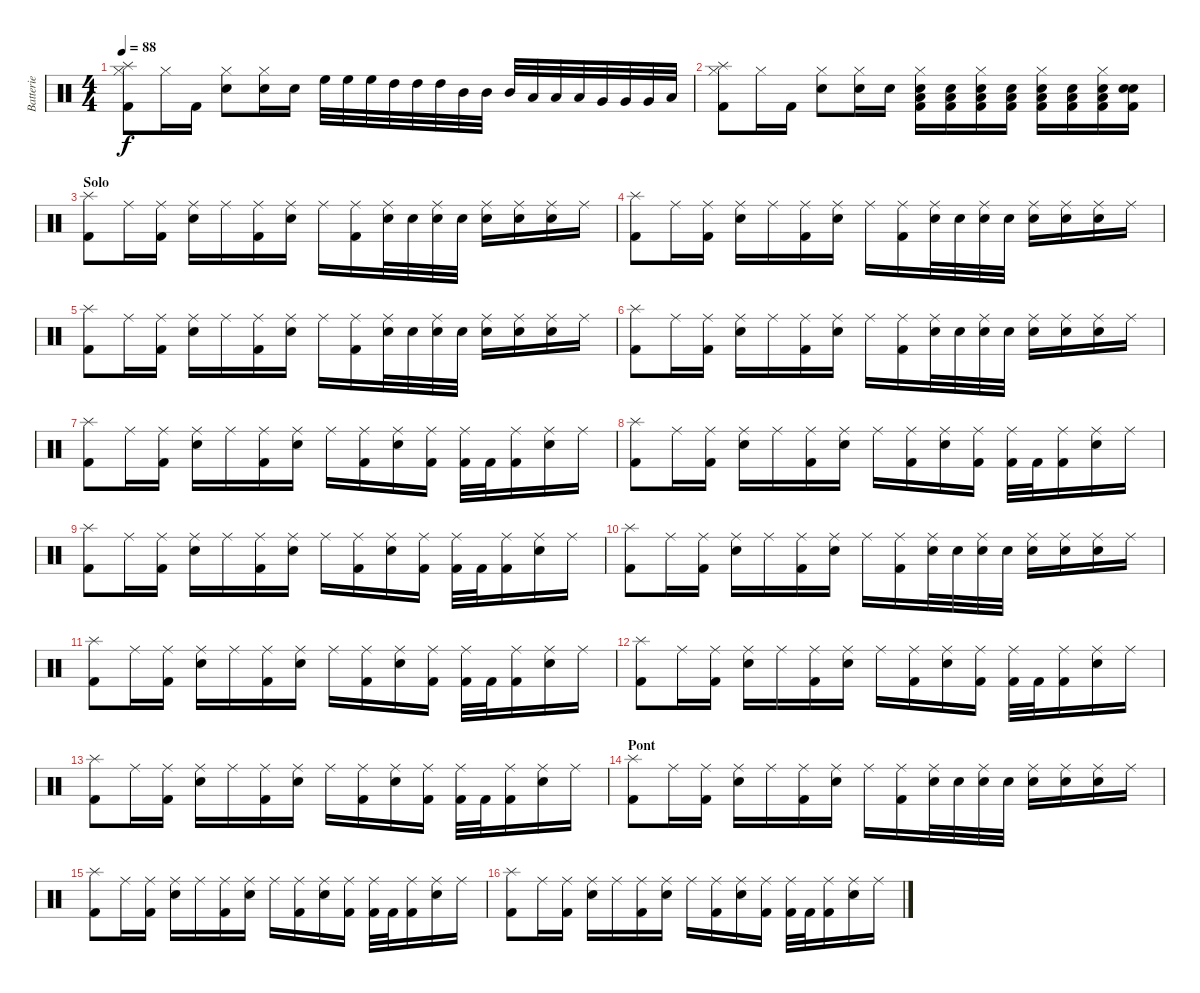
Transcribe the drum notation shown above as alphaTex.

\track ("Batterie" "Batterie") {instrument percussion}
\staff {score}
\articulation defaults
\ts (4 4)
\tempo 88
\clef neutral
\ks c
("Splash (hit)" "Hi-Hat (closed)" "Kick (hit) 2").8{dy f} "Hi-Hat (closed)".16 "Kick (hit) 2".16 ("Hi-Hat (closed)" "Snare (hit) 2").8 ("Hi-Hat (closed)" "Snare (hit) 2").16 "Snare (hit) 2".16 "High Floor Tom (hit)".32 "High Floor Tom (hit)".32 "High Floor Tom (hit)".32 "High Tom (hit)".32 "High Tom (hit)".32 "High Tom (hit)".32 "Mid Tom (hit)".32 "Mid Tom (hit)".32 "Mid Tom (hit)".32 "Low Tom (hit)".32 "Low Tom (hit)".32 "Low Tom (hit)".32 "Very Low Tom (hit)".32 "Very Low Tom (hit)".32 "Very Low Tom (hit)".32 "Low Floor Tom (hit)".32 |
("Splash (hit)" "Hi-Hat (closed)" "Kick (hit) 2").8 "Hi-Hat (closed)".16 "Kick (hit) 2".16 ("Hi-Hat (closed)" "Snare (hit) 2").8 ("Hi-Hat (closed)" "Snare (hit) 2").16 "Snare (hit) 2".16 ("Hi-Hat (closed)" "Low Floor Tom (hit)" "Snare (hit) 2" "Kick (hit) 2").16 ("Low Floor Tom (hit)" "Snare (hit) 2" "Kick (hit) 2").16 ("Hi-Hat (closed)" "Low Floor Tom (hit)" "Snare (hit) 2" "Kick (hit) 2").16 ("Low Floor Tom (hit)" "Snare (hit) 2" "Kick (hit) 2").16 ("Hi-Hat (closed)" "Low Floor Tom (hit)" "Snare (hit) 2" "Kick (hit) 2").16 ("Low Floor Tom (hit)" "Snare (hit) 2" "Kick (hit) 2").16 ("Hi-Hat (closed)" "Low Floor Tom (hit)" "Snare (hit) 2" "Kick (hit) 2").16 ("Snare (hit)" "Snare (hit) 2" "Kick (hit) 2").16 |
\section ("" "Solo")
("Splash (hit)" "Kick (hit) 2").8 "Ride (middle)".16 ("Ride (middle)" "Kick (hit) 2").16 ("Ride (middle)" "Snare (hit) 2").16 "Ride (middle)".16 ("Ride (middle)" "Kick (hit) 2").16 ("Ride (middle)" "Snare (hit) 2").16 "Ride (middle)".16 ("Ride (middle)" "Kick (hit) 2").16 ("Ride (middle)" "Snare (hit) 2").32 "Snare (hit) 2".32 ("Ride (middle)" "Snare (hit) 2").32 "Snare (hit) 2".32 ("Ride (middle)" "Snare (hit) 2").16 ("Ride (middle)" "Snare (hit) 2").16 ("Ride (middle)" "Snare (hit) 2").16 "Ride (middle)".16 |
("Splash (hit)" "Kick (hit) 2").8 "Ride (middle)".16 ("Ride (middle)" "Kick (hit) 2").16 ("Ride (middle)" "Snare (hit) 2").16 "Ride (middle)".16 ("Ride (middle)" "Kick (hit) 2").16 ("Ride (middle)" "Snare (hit) 2").16 "Ride (middle)".16 ("Ride (middle)" "Kick (hit) 2").16 ("Ride (middle)" "Snare (hit) 2").32 "Snare (hit) 2".32 ("Ride (middle)" "Snare (hit) 2").32 "Snare (hit) 2".32 ("Ride (middle)" "Snare (hit) 2").16 ("Ride (middle)" "Snare (hit) 2").16 ("Ride (middle)" "Snare (hit) 2").16 "Ride (middle)".16 |
("Splash (hit)" "Kick (hit) 2").8 "Ride (middle)".16 ("Ride (middle)" "Kick (hit) 2").16 ("Ride (middle)" "Snare (hit) 2").16 "Ride (middle)".16 ("Ride (middle)" "Kick (hit) 2").16 ("Ride (middle)" "Snare (hit) 2").16 "Ride (middle)".16 ("Ride (middle)" "Kick (hit) 2").16 ("Ride (middle)" "Snare (hit) 2").32 "Snare (hit) 2".32 ("Ride (middle)" "Snare (hit) 2").32 "Snare (hit) 2".32 ("Ride (middle)" "Snare (hit) 2").16 ("Ride (middle)" "Snare (hit) 2").16 ("Ride (middle)" "Snare (hit) 2").16 "Ride (middle)".16 |
("Splash (hit)" "Kick (hit) 2").8 "Ride (middle)".16 ("Ride (middle)" "Kick (hit) 2").16 ("Ride (middle)" "Snare (hit) 2").16 "Ride (middle)".16 ("Ride (middle)" "Kick (hit) 2").16 ("Ride (middle)" "Snare (hit) 2").16 "Ride (middle)".16 ("Ride (middle)" "Kick (hit) 2").16 ("Ride (middle)" "Snare (hit) 2").32 "Snare (hit) 2".32 ("Ride (middle)" "Snare (hit) 2").32 "Snare (hit) 2".32 ("Ride (middle)" "Snare (hit) 2").16 ("Ride (middle)" "Snare (hit) 2").16 ("Ride (middle)" "Snare (hit) 2").16 "Ride (middle)".16 |
("Splash (hit)" "Kick (hit) 2").8 "Ride (middle)".16 ("Ride (middle)" "Kick (hit) 2").16 ("Ride (middle)" "Snare (hit) 2").16 "Ride (middle)".16 ("Ride (middle)" "Kick (hit) 2").16 ("Ride (middle)" "Snare (hit) 2").16 "Ride (middle)".16 ("Ride (middle)" "Kick (hit) 2").16 ("Ride (middle)" "Snare (hit) 2").16 ("Ride (middle)" "Kick (hit) 2").16 ("Ride (middle)" "Kick (hit) 2").32 "Kick (hit) 2".32 ("Ride (middle)" "Kick (hit) 2").16 ("Ride (middle)" "Snare (hit) 2").16 "Ride (middle)".16 |
("Splash (hit)" "Kick (hit) 2").8 "Ride (middle)".16 ("Ride (middle)" "Kick (hit) 2").16 ("Ride (middle)" "Snare (hit) 2").16 "Ride (middle)".16 ("Ride (middle)" "Kick (hit) 2").16 ("Ride (middle)" "Snare (hit) 2").16 "Ride (middle)".16 ("Ride (middle)" "Kick (hit) 2").16 ("Ride (middle)" "Snare (hit) 2").16 ("Ride (middle)" "Kick (hit) 2").16 ("Ride (middle)" "Kick (hit) 2").32 "Kick (hit) 2".32 ("Ride (middle)" "Kick (hit) 2").16 ("Ride (middle)" "Snare (hit) 2").16 "Ride (middle)".16 |
("Splash (hit)" "Kick (hit) 2").8 "Ride (middle)".16 ("Ride (middle)" "Kick (hit) 2").16 ("Ride (middle)" "Snare (hit) 2").16 "Ride (middle)".16 ("Ride (middle)" "Kick (hit) 2").16 ("Ride (middle)" "Snare (hit) 2").16 "Ride (middle)".16 ("Ride (middle)" "Kick (hit) 2").16 ("Ride (middle)" "Snare (hit) 2").16 ("Ride (middle)" "Kick (hit) 2").16 ("Ride (middle)" "Kick (hit) 2").32 "Kick (hit) 2".32 ("Ride (middle)" "Kick (hit) 2").16 ("Ride (middle)" "Snare (hit) 2").16 "Ride (middle)".16 |
("Splash (hit)" "Kick (hit) 2").8 "Ride (middle)".16 ("Ride (middle)" "Kick (hit) 2").16 ("Ride (middle)" "Snare (hit) 2").16 "Ride (middle)".16 ("Ride (middle)" "Kick (hit) 2").16 ("Ride (middle)" "Snare (hit) 2").16 "Ride (middle)".16 ("Ride (middle)" "Kick (hit) 2").16 ("Ride (middle)" "Snare (hit) 2").32 "Snare (hit) 2".32 ("Ride (middle)" "Snare (hit) 2").32 "Snare (hit) 2".32 ("Ride (middle)" "Snare (hit) 2").16 ("Ride (middle)" "Snare (hit) 2").16 ("Ride (middle)" "Snare (hit) 2").16 "Ride (middle)".16 |
("Splash (hit)" "Kick (hit) 2").8 "Ride (middle)".16 ("Ride (middle)" "Kick (hit) 2").16 ("Ride (middle)" "Snare (hit) 2").16 "Ride (middle)".16 ("Ride (middle)" "Kick (hit) 2").16 ("Ride (middle)" "Snare (hit) 2").16 "Ride (middle)".16 ("Ride (middle)" "Kick (hit) 2").16 ("Ride (middle)" "Snare (hit) 2").16 ("Ride (middle)" "Kick (hit) 2").16 ("Ride (middle)" "Kick (hit) 2").32 "Kick (hit) 2".32 ("Ride (middle)" "Kick (hit) 2").16 ("Ride (middle)" "Snare (hit) 2").16 "Ride (middle)".16 |
("Splash (hit)" "Kick (hit) 2").8 "Ride (middle)".16 ("Ride (middle)" "Kick (hit) 2").16 ("Ride (middle)" "Snare (hit) 2").16 "Ride (middle)".16 ("Ride (middle)" "Kick (hit) 2").16 ("Ride (middle)" "Snare (hit) 2").16 "Ride (middle)".16 ("Ride (middle)" "Kick (hit) 2").16 ("Ride (middle)" "Snare (hit) 2").16 ("Ride (middle)" "Kick (hit) 2").16 ("Ride (middle)" "Kick (hit) 2").32 "Kick (hit) 2".32 ("Ride (middle)" "Kick (hit) 2").16 ("Ride (middle)" "Snare (hit) 2").16 "Ride (middle)".16 |
("Splash (hit)" "Kick (hit) 2").8 "Ride (middle)".16 ("Ride (middle)" "Kick (hit) 2").16 ("Ride (middle)" "Snare (hit) 2").16 "Ride (middle)".16 ("Ride (middle)" "Kick (hit) 2").16 ("Ride (middle)" "Snare (hit) 2").16 "Ride (middle)".16 ("Ride (middle)" "Kick (hit) 2").16 ("Ride (middle)" "Snare (hit) 2").16 ("Ride (middle)" "Kick (hit) 2").16 ("Ride (middle)" "Kick (hit) 2").32 "Kick (hit) 2".32 ("Ride (middle)" "Kick (hit) 2").16 ("Ride (middle)" "Snare (hit) 2").16 "Ride (middle)".16 |
\section ("" "Pont")
("Splash (hit)" "Kick (hit) 2").8 "Ride (middle)".16 ("Ride (middle)" "Kick (hit) 2").16 ("Ride (middle)" "Snare (hit) 2").16 "Ride (middle)".16 ("Ride (middle)" "Kick (hit) 2").16 ("Ride (middle)" "Snare (hit) 2").16 "Ride (middle)".16 ("Ride (middle)" "Kick (hit) 2").16 ("Ride (middle)" "Snare (hit) 2").32 "Snare (hit) 2".32 ("Ride (middle)" "Snare (hit) 2").32 "Snare (hit) 2".32 ("Ride (middle)" "Snare (hit) 2").16 ("Ride (middle)" "Snare (hit) 2").16 ("Ride (middle)" "Snare (hit) 2").16 "Ride (middle)".16 |
("Splash (hit)" "Kick (hit) 2").8 "Ride (middle)".16 ("Ride (middle)" "Kick (hit) 2").16 ("Ride (middle)" "Snare (hit) 2").16 "Ride (middle)".16 ("Ride (middle)" "Kick (hit) 2").16 ("Ride (middle)" "Snare (hit) 2").16 "Ride (middle)".16 ("Ride (middle)" "Kick (hit) 2").16 ("Ride (middle)" "Snare (hit) 2").16 ("Ride (middle)" "Kick (hit) 2").16 ("Ride (middle)" "Kick (hit) 2").32 "Kick (hit) 2".32 ("Ride (middle)" "Kick (hit) 2").16 ("Ride (middle)" "Snare (hit) 2").16 "Ride (middle)".16 |
("Splash (hit)" "Kick (hit) 2").8 "Ride (middle)".16 ("Ride (middle)" "Kick (hit) 2").16 ("Ride (middle)" "Snare (hit) 2").16 "Ride (middle)".16 ("Ride (middle)" "Kick (hit) 2").16 ("Ride (middle)" "Snare (hit) 2").16 "Ride (middle)".16 ("Ride (middle)" "Kick (hit) 2").16 ("Ride (middle)" "Snare (hit) 2").16 ("Ride (middle)" "Kick (hit) 2").16 ("Ride (middle)" "Kick (hit) 2").32 "Kick (hit) 2".32 ("Ride (middle)" "Kick (hit) 2").16 ("Ride (middle)" "Snare (hit) 2").16 "Ride (middle)".16
